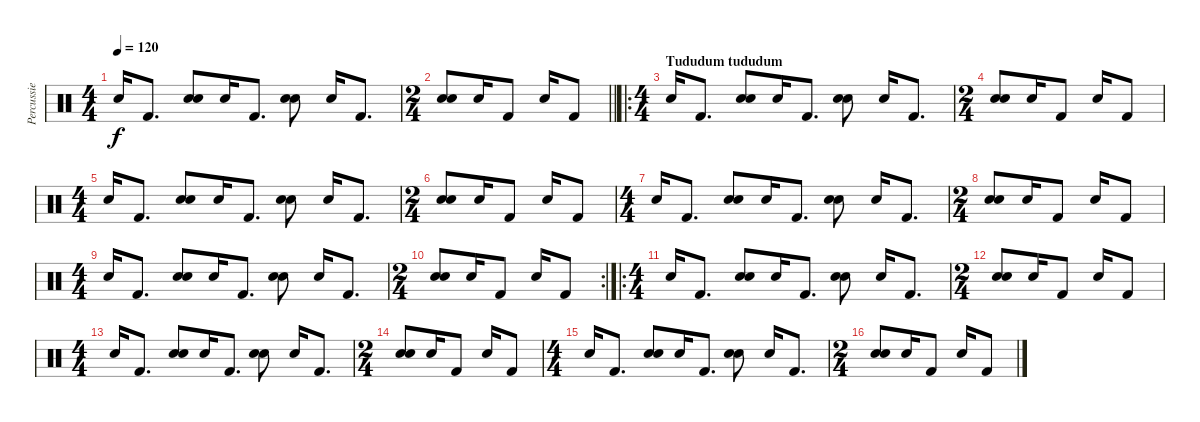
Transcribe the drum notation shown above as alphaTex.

\track ("Percussie" "Percussie") {instrument percussion}
\staff {score}
\articulation defaults
\ts (4 4)
\tempo 120
\clef neutral
\ks c "Snare (hit) 2".16{dy f} "Kick (hit) 2".8{d}
("Hand Clap (hit)" "Snare (hit) 2").8 "Snare (hit) 2".16 "Kick (hit) 2".8{d} ("Hand Clap (hit)" "Snare (hit) 2").8 "Snare (hit) 2".16 "Kick (hit) 2".8{d} |
\ts (2 4)
\barLineRight lightlight
("Hand Clap (hit)" "Snare (hit) 2").8 "Snare (hit) 2".16 "Kick (hit) 2".8 "Snare (hit) 2".16 "Kick (hit) 2".8 |
\ro
\ts (4 4)
\section ("" "Tududum tududum")
"Snare (hit) 2".16 "Kick (hit) 2".8{d} ("Hand Clap (hit)" "Snare (hit) 2").8 "Snare (hit) 2".16 "Kick (hit) 2".8{d} ("Hand Clap (hit)" "Snare (hit) 2").8 "Snare (hit) 2".16 "Kick (hit) 2".8{d} |
\ts (2 4)
("Hand Clap (hit)" "Snare (hit) 2").8 "Snare (hit) 2".16 "Kick (hit) 2".8 "Snare (hit) 2".16 "Kick (hit) 2".8 |
\ts (4 4)
"Snare (hit) 2".16 "Kick (hit) 2".8{d} ("Hand Clap (hit)" "Snare (hit) 2").8 "Snare (hit) 2".16 "Kick (hit) 2".8{d} ("Hand Clap (hit)" "Snare (hit) 2").8 "Snare (hit) 2".16 "Kick (hit) 2".8{d} |
\ts (2 4)
("Hand Clap (hit)" "Snare (hit) 2").8 "Snare (hit) 2".16 "Kick (hit) 2".8 "Snare (hit) 2".16 "Kick (hit) 2".8 |
\ts (4 4)
"Snare (hit) 2".16 "Kick (hit) 2".8{d} ("Hand Clap (hit)" "Snare (hit) 2").8 "Snare (hit) 2".16 "Kick (hit) 2".8{d} ("Hand Clap (hit)" "Snare (hit) 2").8 "Snare (hit) 2".16 "Kick (hit) 2".8{d} |
\ts (2 4)
("Hand Clap (hit)" "Snare (hit) 2").8 "Snare (hit) 2".16 "Kick (hit) 2".8 "Snare (hit) 2".16 "Kick (hit) 2".8 |
\ts (4 4)
"Snare (hit) 2".16 "Kick (hit) 2".8{d} ("Hand Clap (hit)" "Snare (hit) 2").8 "Snare (hit) 2".16 "Kick (hit) 2".8{d} ("Hand Clap (hit)" "Snare (hit) 2").8 "Snare (hit) 2".16 "Kick (hit) 2".8{d} |
\rc 2
\ts (2 4)
("Hand Clap (hit)" "Snare (hit) 2").8 "Snare (hit) 2".16 "Kick (hit) 2".8 "Snare (hit) 2".16 "Kick (hit) 2".8 |
\ro
\ts (4 4)
"Snare (hit) 2".16 "Kick (hit) 2".8{d} ("Hand Clap (hit)" "Snare (hit) 2").8 "Snare (hit) 2".16 "Kick (hit) 2".8{d} ("Hand Clap (hit)" "Snare (hit) 2").8 "Snare (hit) 2".16 "Kick (hit) 2".8{d} |
\ts (2 4)
("Hand Clap (hit)" "Snare (hit) 2").8 "Snare (hit) 2".16 "Kick (hit) 2".8 "Snare (hit) 2".16 "Kick (hit) 2".8 |
\ts (4 4)
"Snare (hit) 2".16 "Kick (hit) 2".8{d} ("Hand Clap (hit)" "Snare (hit) 2").8 "Snare (hit) 2".16 "Kick (hit) 2".8{d} ("Hand Clap (hit)" "Snare (hit) 2").8 "Snare (hit) 2".16 "Kick (hit) 2".8{d} |
\ts (2 4)
("Hand Clap (hit)" "Snare (hit) 2").8 "Snare (hit) 2".16 "Kick (hit) 2".8 "Snare (hit) 2".16 "Kick (hit) 2".8 |
\ts (4 4)
"Snare (hit) 2".16 "Kick (hit) 2".8{d} ("Hand Clap (hit)" "Snare (hit) 2").8 "Snare (hit) 2".16 "Kick (hit) 2".8{d} ("Hand Clap (hit)" "Snare (hit) 2").8 "Snare (hit) 2".16 "Kick (hit) 2".8{d} |
\ts (2 4)
("Hand Clap (hit)" "Snare (hit) 2").8 "Snare (hit) 2".16 "Kick (hit) 2".8 "Snare (hit) 2".16 "Kick (hit) 2".8
